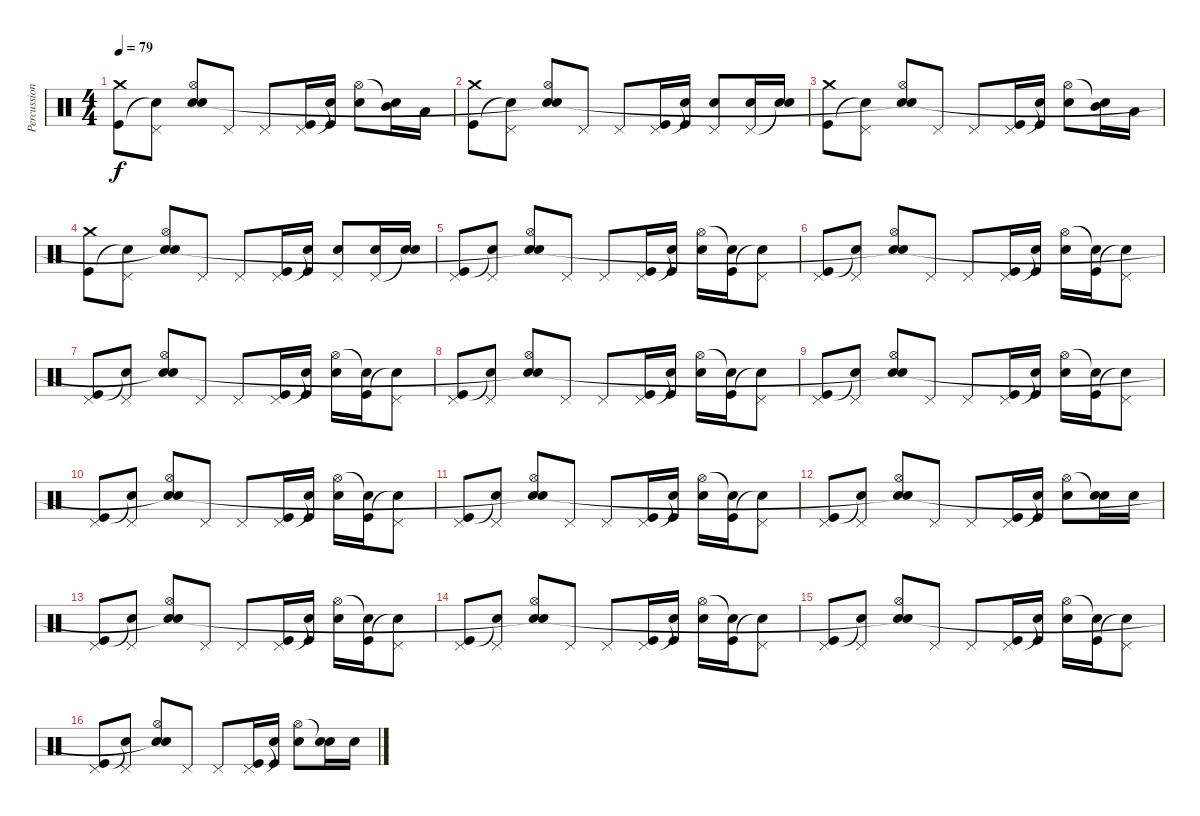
\track ("Percussion" "Percussion") {instrument percussion}
\staff {score}
\articulation defaults
\ts (4 4)
\tempo 79
\clef neutral
\ks c
("Crash medium (hit)" "Kick (hit)").8{dy f} ("Pedal Hi-Hat (hit)" "Snare (hit)"{t}).8 ("Hi-Hat (open)" "Electric Snare (hit)" "Snare (hit)"{t}).8 "Pedal Hi-Hat (hit)".8 "Pedal Hi-Hat (hit)".8 ("Pedal Hi-Hat (hit)" "Kick (hit)").16 ("Snare (hit)"{t} "Kick (hit)").16 ("Hi-Hat (open)" "Electric Snare (hit)").8 ("Snare (hit)"{t} "Mid Tom (hit)").16 "Low Tom (hit)".16 |
("Crash medium (hit)" "Kick (hit)").8 ("Pedal Hi-Hat (hit)" "Snare (hit)"{t}).8 ("Hi-Hat (open)" "Electric Snare (hit)" "Snare (hit)"{t}).8 "Pedal Hi-Hat (hit)".8 "Pedal Hi-Hat (hit)".8 ("Pedal Hi-Hat (hit)" "Kick (hit)").16 ("Snare (hit)"{t} "Kick (hit)").16 ("Pedal Hi-Hat (hit)" "Electric Snare (hit)").8 ("Pedal Hi-Hat (hit)" "Electric Snare (hit)").16 ("Snare (hit)"{t} "Electric Snare (hit)").16 |
("Crash medium (hit)" "Kick (hit)").8 ("Pedal Hi-Hat (hit)" "Snare (hit)"{t}).8 ("Hi-Hat (open)" "Electric Snare (hit)" "Snare (hit)"{t}).8 "Pedal Hi-Hat (hit)".8 "Pedal Hi-Hat (hit)".8 ("Pedal Hi-Hat (hit)" "Kick (hit)").16 ("Snare (hit)"{t} "Kick (hit)").16 ("Hi-Hat (open)" "Electric Snare (hit)").8 ("Snare (hit)"{t} "Mid Tom (hit)").16 "Low Tom (hit)".16 |
("Crash medium (hit)" "Kick (hit)").8 ("Pedal Hi-Hat (hit)" "Snare (hit)"{t}).8 ("Hi-Hat (open)" "Electric Snare (hit)" "Snare (hit)"{t}).8 "Pedal Hi-Hat (hit)".8 "Pedal Hi-Hat (hit)".8 ("Pedal Hi-Hat (hit)" "Kick (hit)").16 ("Snare (hit)"{t} "Kick (hit)").16 ("Pedal Hi-Hat (hit)" "Electric Snare (hit)").8 ("Pedal Hi-Hat (hit)" "Electric Snare (hit)").16 ("Snare (hit)"{t} "Electric Snare (hit)").16 |
("Pedal Hi-Hat (hit)" "Kick (hit)").8 ("Pedal Hi-Hat (hit)" "Snare (hit)"{t}).8 ("Hi-Hat (open)" "Electric Snare (hit)" "Snare (hit)"{t}).8 "Pedal Hi-Hat (hit)".8 "Pedal Hi-Hat (hit)".8 ("Pedal Hi-Hat (hit)" "Kick (hit)").16 ("Snare (hit)"{t} "Kick (hit)").16 ("Hi-Hat (open)" "Electric Snare (hit)").16 ("Snare (hit)"{t} "Kick (hit)").16 ("Pedal Hi-Hat (hit)" "Snare (hit)"{t}).8 |
("Pedal Hi-Hat (hit)" "Kick (hit)").8 ("Pedal Hi-Hat (hit)" "Snare (hit)"{t}).8 ("Hi-Hat (open)" "Electric Snare (hit)" "Snare (hit)"{t}).8 "Pedal Hi-Hat (hit)".8 "Pedal Hi-Hat (hit)".8 ("Pedal Hi-Hat (hit)" "Kick (hit)").16 ("Snare (hit)"{t} "Kick (hit)").16 ("Hi-Hat (open)" "Electric Snare (hit)").16 ("Snare (hit)"{t} "Kick (hit)").16 ("Pedal Hi-Hat (hit)" "Snare (hit)"{t}).8 |
("Pedal Hi-Hat (hit)" "Kick (hit)").8 ("Pedal Hi-Hat (hit)" "Snare (hit)"{t}).8 ("Hi-Hat (open)" "Electric Snare (hit)" "Snare (hit)"{t}).8 "Pedal Hi-Hat (hit)".8 "Pedal Hi-Hat (hit)".8 ("Pedal Hi-Hat (hit)" "Kick (hit)").16 ("Snare (hit)"{t} "Kick (hit)").16 ("Hi-Hat (open)" "Electric Snare (hit)").16 ("Snare (hit)"{t} "Kick (hit)").16 ("Pedal Hi-Hat (hit)" "Snare (hit)"{t}).8 |
("Pedal Hi-Hat (hit)" "Kick (hit)").8 ("Pedal Hi-Hat (hit)" "Snare (hit)"{t}).8 ("Hi-Hat (open)" "Electric Snare (hit)" "Snare (hit)"{t}).8 "Pedal Hi-Hat (hit)".8 "Pedal Hi-Hat (hit)".8 ("Pedal Hi-Hat (hit)" "Kick (hit)").16 ("Snare (hit)"{t} "Kick (hit)").16 ("Hi-Hat (open)" "Electric Snare (hit)").16 ("Snare (hit)"{t} "Kick (hit)").16 ("Pedal Hi-Hat (hit)" "Snare (hit)"{t}).8 |
("Pedal Hi-Hat (hit)" "Kick (hit)").8 ("Pedal Hi-Hat (hit)" "Snare (hit)"{t}).8 ("Hi-Hat (open)" "Electric Snare (hit)" "Snare (hit)"{t}).8 "Pedal Hi-Hat (hit)".8 "Pedal Hi-Hat (hit)".8 ("Pedal Hi-Hat (hit)" "Kick (hit)").16 ("Snare (hit)"{t} "Kick (hit)").16 ("Hi-Hat (open)" "Electric Snare (hit)").16 ("Snare (hit)"{t} "Kick (hit)").16 ("Pedal Hi-Hat (hit)" "Snare (hit)"{t}).8 |
("Pedal Hi-Hat (hit)" "Kick (hit)").8 ("Pedal Hi-Hat (hit)" "Snare (hit)"{t}).8 ("Hi-Hat (open)" "Electric Snare (hit)" "Snare (hit)"{t}).8 "Pedal Hi-Hat (hit)".8 "Pedal Hi-Hat (hit)".8 ("Pedal Hi-Hat (hit)" "Kick (hit)").16 ("Snare (hit)"{t} "Kick (hit)").16 ("Hi-Hat (open)" "Electric Snare (hit)").16 ("Snare (hit)"{t} "Kick (hit)").16 ("Pedal Hi-Hat (hit)" "Snare (hit)"{t}).8 |
("Pedal Hi-Hat (hit)" "Kick (hit)").8 ("Pedal Hi-Hat (hit)" "Snare (hit)"{t}).8 ("Hi-Hat (open)" "Electric Snare (hit)" "Snare (hit)"{t}).8 "Pedal Hi-Hat (hit)".8 "Pedal Hi-Hat (hit)".8 ("Pedal Hi-Hat (hit)" "Kick (hit)").16 ("Snare (hit)"{t} "Kick (hit)").16 ("Hi-Hat (open)" "Electric Snare (hit)").16 ("Snare (hit)"{t} "Kick (hit)").16 ("Pedal Hi-Hat (hit)" "Snare (hit)"{t}).8 |
("Pedal Hi-Hat (hit)" "Kick (hit)").8 ("Pedal Hi-Hat (hit)" "Snare (hit)"{t}).8 ("Hi-Hat (open)" "Electric Snare (hit)" "Snare (hit)"{t}).8 "Pedal Hi-Hat (hit)".8 "Pedal Hi-Hat (hit)".8 ("Pedal Hi-Hat (hit)" "Kick (hit)").16 ("Snare (hit)"{t} "Kick (hit)").16 ("Hi-Hat (open)" "Electric Snare (hit)").8 ("Snare (hit)"{t} "Electric Snare (hit)").16 "Electric Snare (hit)".16 |
("Pedal Hi-Hat (hit)" "Kick (hit)").8 ("Pedal Hi-Hat (hit)" "Snare (hit)"{t}).8 ("Hi-Hat (open)" "Electric Snare (hit)" "Snare (hit)"{t}).8 "Pedal Hi-Hat (hit)".8 "Pedal Hi-Hat (hit)".8 ("Pedal Hi-Hat (hit)" "Kick (hit)").16 ("Snare (hit)"{t} "Kick (hit)").16 ("Hi-Hat (open)" "Electric Snare (hit)").16 ("Snare (hit)"{t} "Kick (hit)").16 ("Pedal Hi-Hat (hit)" "Snare (hit)"{t}).8 |
("Pedal Hi-Hat (hit)" "Kick (hit)").8 ("Pedal Hi-Hat (hit)" "Snare (hit)"{t}).8 ("Hi-Hat (open)" "Electric Snare (hit)" "Snare (hit)"{t}).8 "Pedal Hi-Hat (hit)".8 "Pedal Hi-Hat (hit)".8 ("Pedal Hi-Hat (hit)" "Kick (hit)").16 ("Snare (hit)"{t} "Kick (hit)").16 ("Hi-Hat (open)" "Electric Snare (hit)").16 ("Snare (hit)"{t} "Kick (hit)").16 ("Pedal Hi-Hat (hit)" "Snare (hit)"{t}).8 |
("Pedal Hi-Hat (hit)" "Kick (hit)").8 ("Pedal Hi-Hat (hit)" "Snare (hit)"{t}).8 ("Hi-Hat (open)" "Electric Snare (hit)" "Snare (hit)"{t}).8 "Pedal Hi-Hat (hit)".8 "Pedal Hi-Hat (hit)".8 ("Pedal Hi-Hat (hit)" "Kick (hit)").16 ("Snare (hit)"{t} "Kick (hit)").16 ("Hi-Hat (open)" "Electric Snare (hit)").16 ("Snare (hit)"{t} "Kick (hit)").16 ("Pedal Hi-Hat (hit)" "Snare (hit)"{t}).8 |
("Pedal Hi-Hat (hit)" "Kick (hit)").8 ("Pedal Hi-Hat (hit)" "Snare (hit)"{t}).8 ("Hi-Hat (open)" "Electric Snare (hit)" "Snare (hit)"{t}).8 "Pedal Hi-Hat (hit)".8 "Pedal Hi-Hat (hit)".8 ("Pedal Hi-Hat (hit)" "Kick (hit)").16 ("Snare (hit)"{t} "Kick (hit)").16 ("Hi-Hat (open)" "Electric Snare (hit)").8 ("Snare (hit)"{t} "Electric Snare (hit)").16 "Electric Snare (hit)".16
